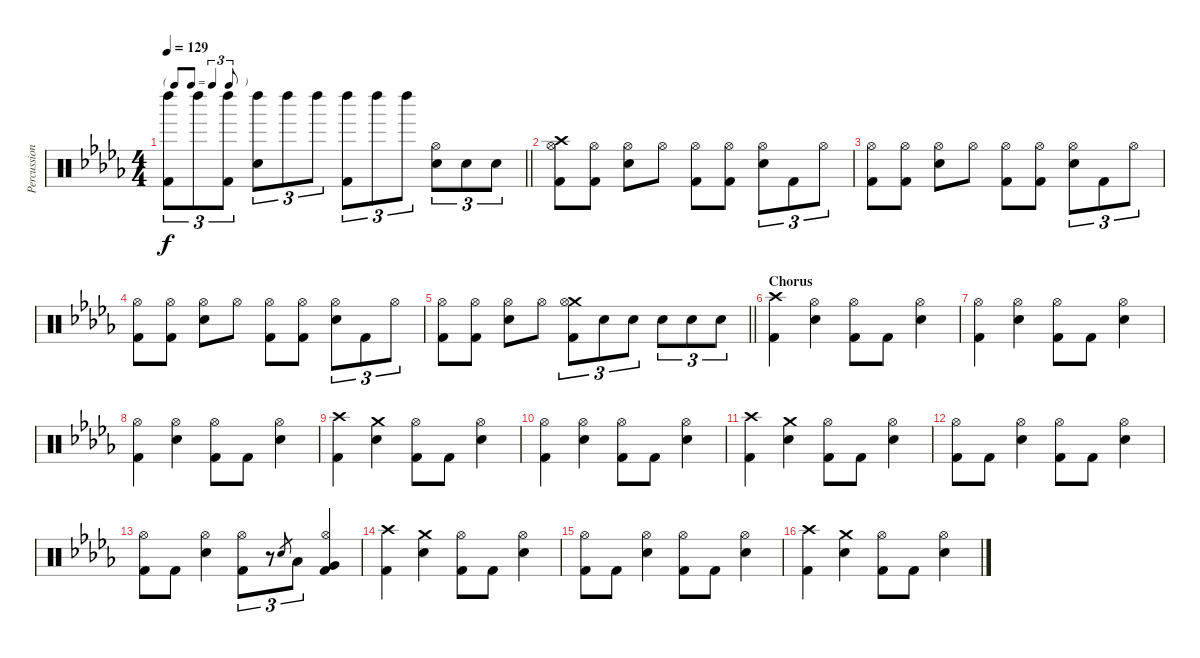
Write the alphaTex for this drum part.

\track ("Percussion" "Percussion") {instrument percussion}
\staff {score}
\articulation defaults
\ts (4 4)
\tf triplet8th
\tempo 129
\clef neutral
\barLineRight lightlight
\ks db
("Left Maraca (hit)" "Kick (hit) 2").8{tu (3 2) dy f} "Left Maraca (hit)".8{tu (3 2)} ("Left Maraca (hit)" "Kick (hit) 2").8{tu (3 2)} ("Left Maraca (hit)" "Electric Snare (hit)").8{tu (3 2)} "Left Maraca (hit)".8{tu (3 2)} "Left Maraca (hit)".8{tu (3 2)} ("Left Maraca (hit)" "Kick (hit) 2").8{tu (3 2)} "Left Maraca (hit)".8{tu (3 2)} "Left Maraca (hit)".8{tu (3 2)} ("Hi-Hat (open)" "Electric Snare (hit)").8{tu (3 2)} "Electric Snare (hit)".8{tu (3 2)} "Electric Snare (hit)".8{tu (3 2)} |
("Crash high (hit)" "Hi-Hat (open)" "Kick (hit) 2").8 ("Hi-Hat (open)" "Kick (hit) 2").8 ("Hi-Hat (open)" "Electric Snare (hit)").8 "Hi-Hat (open)".8 ("Hi-Hat (open)" "Kick (hit) 2").8 ("Hi-Hat (open)" "Kick (hit) 2").8 ("Hi-Hat (open)" "Electric Snare (hit)").8{tu (3 2)} "Kick (hit) 2".8{tu (3 2)} "Hi-Hat (open)".8{tu (3 2)} |
("Hi-Hat (open)" "Kick (hit) 2").8 ("Hi-Hat (open)" "Kick (hit) 2").8 ("Hi-Hat (open)" "Electric Snare (hit)").8 "Hi-Hat (open)".8 ("Hi-Hat (open)" "Kick (hit) 2").8 ("Hi-Hat (open)" "Kick (hit) 2").8 ("Hi-Hat (open)" "Electric Snare (hit)").8{tu (3 2)} "Kick (hit) 2".8{tu (3 2)} "Hi-Hat (open)".8{tu (3 2)} |
("Hi-Hat (open)" "Kick (hit) 2").8 ("Hi-Hat (open)" "Kick (hit) 2").8 ("Hi-Hat (open)" "Electric Snare (hit)").8 "Hi-Hat (open)".8 ("Hi-Hat (open)" "Kick (hit) 2").8 ("Hi-Hat (open)" "Kick (hit) 2").8 ("Hi-Hat (open)" "Electric Snare (hit)").8{tu (3 2)} "Kick (hit) 2".8{tu (3 2)} "Hi-Hat (open)".8{tu (3 2)} |
\barLineRight lightlight
("Hi-Hat (open)" "Kick (hit) 2").8 ("Hi-Hat (open)" "Kick (hit) 2").8 ("Hi-Hat (open)" "Electric Snare (hit)").8 "Hi-Hat (open)".8 ("Crash medium (hit)" "Hi-Hat (open)" "Kick (hit) 2").8{tu (3 2)} "Snare (hit) 2".8{tu (3 2)} "Snare (hit) 2".8{tu (3 2)} "Snare (hit) 2".8{tu (3 2)} "Snare (hit) 2".8{tu (3 2)} "Snare (hit) 2".8{tu (3 2)} |
\section ("" "Chorus")
("Crash high (hit)" "Kick (hit) 2").4 ("Hi-Hat (open)" "Electric Snare (hit)").4 ("Hi-Hat (open)" "Kick (hit) 2").8 "Kick (hit) 2".8 ("Hi-Hat (open)" "Electric Snare (hit)").4 |
("Hi-Hat (open)" "Kick (hit) 2").4 ("Hi-Hat (open)" "Electric Snare (hit)").4 ("Hi-Hat (open)" "Kick (hit) 2").8 "Kick (hit) 2".8 ("Hi-Hat (open)" "Electric Snare (hit)").4 |
("Hi-Hat (open)" "Kick (hit) 2").4 ("Hi-Hat (open)" "Electric Snare (hit)").4 ("Hi-Hat (open)" "Kick (hit) 2").8 "Kick (hit) 2".8 ("Hi-Hat (open)" "Electric Snare (hit)").4 |
("Crash high (hit)" "Kick (hit) 2").4 ("Crash medium (hit)" "Electric Snare (hit)").4 ("Hi-Hat (open)" "Kick (hit) 2").8 "Kick (hit) 2".8 ("Hi-Hat (open)" "Electric Snare (hit)").4 |
("Hi-Hat (open)" "Kick (hit) 2").4 ("Hi-Hat (open)" "Electric Snare (hit)").4 ("Hi-Hat (open)" "Kick (hit) 2").8 "Kick (hit) 2".8 ("Hi-Hat (open)" "Electric Snare (hit)").4 |
("Crash high (hit)" "Kick (hit) 2").4 ("Crash medium (hit)" "Electric Snare (hit)").4 ("Hi-Hat (open)" "Kick (hit) 2").8 "Kick (hit) 2".8 ("Hi-Hat (open)" "Electric Snare (hit)").4 |
("Hi-Hat (open)" "Kick (hit) 2").8 "Kick (hit) 2".8 ("Hi-Hat (open)" "Electric Snare (hit)").4 ("Hi-Hat (open)" "Kick (hit) 2").8 "Kick (hit) 2".8 ("Hi-Hat (open)" "Electric Snare (hit)").4 |
("Hi-Hat (open)" "Kick (hit) 2").8 "Kick (hit) 2".8 ("Hi-Hat (open)" "Electric Snare (hit)").4 ("Hi-Hat (open)" "Kick (hit) 2").8{tu (3 2)} r.8{tu (3 2)} "Electric Snare (hit)".8{gr} "Low Tom (hit)".8{tu (3 2)} ("Hi-Hat (open)" "Very Low Tom (hit)" "Kick (hit) 2").4 |
("Crash high (hit)" "Kick (hit) 2").4 ("Crash medium (hit)" "Electric Snare (hit)").4 ("Hi-Hat (open)" "Kick (hit) 2").8 "Kick (hit) 2".8 ("Hi-Hat (open)" "Electric Snare (hit)").4 |
("Hi-Hat (open)" "Kick (hit) 2").8 "Kick (hit) 2".8 ("Hi-Hat (open)" "Electric Snare (hit)").4 ("Hi-Hat (open)" "Kick (hit) 2").8 "Kick (hit) 2".8 ("Hi-Hat (open)" "Electric Snare (hit)").4 |
("Crash high (hit)" "Kick (hit) 2").4 ("Crash medium (hit)" "Electric Snare (hit)").4 ("Hi-Hat (open)" "Kick (hit) 2").8 "Kick (hit) 2".8 ("Hi-Hat (open)" "Electric Snare (hit)").4
